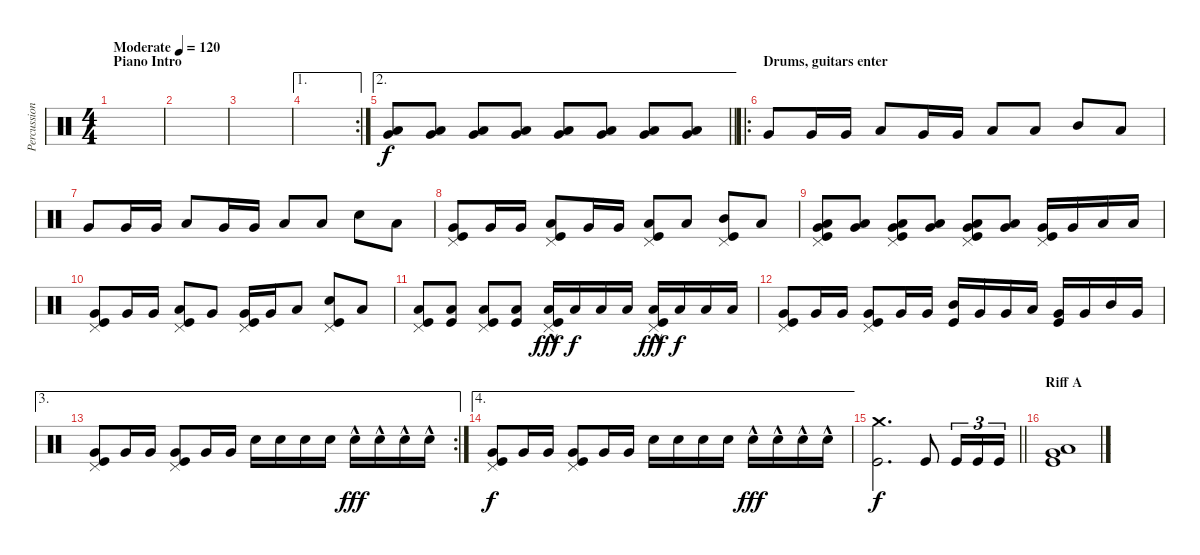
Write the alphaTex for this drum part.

\track ("Percussion (Aksu)" "Percussion") {instrument percussion}
\staff {score}
\articulation defaults
\ts (4 4)
\section ("" "Piano Intro")
\tempo (120 "Moderate")
\clef neutral
\ks c
|
|
|
\ae 1
\rc 2
|
\ae 2
\barLineRight lightlight
("Very Low Tom (hit)" "Low Floor Tom (hit)").8{volume 4} ("Very Low Tom (hit)" "Low Floor Tom (hit)").8{volume 13} ("Very Low Tom (hit)" "Low Floor Tom (hit)").8 ("Very Low Tom (hit)" "Low Floor Tom (hit)").8 ("Very Low Tom (hit)" "Low Floor Tom (hit)").8 ("Very Low Tom (hit)" "Low Floor Tom (hit)").8 ("Very Low Tom (hit)" "Low Floor Tom (hit)").8 ("Very Low Tom (hit)" "Low Floor Tom (hit)").8 |
\ro
\section ("" "Drums, guitars enter")
"Very Low Tom (hit)".8{volume 13} "Very Low Tom (hit)".16 "Very Low Tom (hit)".16 "Low Tom (hit)".8 "Very Low Tom (hit)".16 "Very Low Tom (hit)".16 "Low Floor Tom (hit)".8 "Low Floor Tom (hit)".8 "Mid Tom (hit)".8 "Low Tom (hit)".8 |
"Very Low Tom (hit)".8 "Very Low Tom (hit)".16 "Very Low Tom (hit)".16 "Low Tom (hit)".8 "Very Low Tom (hit)".16 "Very Low Tom (hit)".16 "Low Floor Tom (hit)".8 "Low Floor Tom (hit)".8 "Snare (hit) 2".8 "Low Tom (hit)".8 |
("Pedal Hi-Hat (hit)" "Very Low Tom (hit)" "Kick (hit)").8 "Very Low Tom (hit)".16 "Very Low Tom (hit)".16 ("Pedal Hi-Hat (hit)" "Low Tom (hit)" "Kick (hit)").8 "Very Low Tom (hit)".16 "Very Low Tom (hit)".16 ("Pedal Hi-Hat (hit)" "Low Floor Tom (hit)" "Kick (hit)").8 "Low Floor Tom (hit)".8 ("Pedal Hi-Hat (hit)" "Mid Tom (hit)" "Kick (hit)").8 "Low Tom (hit)".8 |
("Pedal Hi-Hat (hit)" "Low Tom (hit)" "Very Low Tom (hit)" "Kick (hit)").8{volume 6} ("Low Tom (hit)" "Very Low Tom (hit)").8{volume 16} ("Pedal Hi-Hat (hit)" "Low Tom (hit)" "Very Low Tom (hit)" "Kick (hit)").8 ("Low Tom (hit)" "Very Low Tom (hit)").8 ("Pedal Hi-Hat (hit)" "Low Tom (hit)" "Very Low Tom (hit)" "Kick (hit)").8 ("Low Tom (hit)" "Very Low Tom (hit)").8 ("Pedal Hi-Hat (hit)" "Very Low Tom (hit)" "Kick (hit)").16 "Very Low Tom (hit)".16 "Low Floor Tom (hit)".16 "Low Floor Tom (hit)".16 |
("Pedal Hi-Hat (hit)" "Very Low Tom (hit)" "Kick (hit)").8{volume 13} "Very Low Tom (hit)".16 "Very Low Tom (hit)".16 ("Pedal Hi-Hat (hit)" "Low Tom (hit)" "Kick (hit)").8 "Very Low Tom (hit)".8 ("Pedal Hi-Hat (hit)" "Very Low Tom (hit)" "Kick (hit)").16 "Very Low Tom (hit)".16 "Low Floor Tom (hit)".8 ("Pedal Hi-Hat (hit)" "Snare (hit) 2" "Kick (hit)").8 "Low Tom (hit)".8 |
("Pedal Hi-Hat (hit)" "Low Floor Tom (hit)" "Kick (hit)").8 ("Low Floor Tom (hit)" "Kick (hit)").8 ("Pedal Hi-Hat (hit)" "Low Floor Tom (hit)" "Kick (hit)").8 ("Low Floor Tom (hit)" "Kick (hit)").8 ("Pedal Hi-Hat (hit)" "Low Tom (hit)"{hac} "Kick (hit)").16{dy fff} "Low Tom (hit)".16{dy f} "Low Tom (hit)".16 "Low Tom (hit)".16 ("Pedal Hi-Hat (hit)" "Low Tom (hit)"{hac} "Kick (hit)").16{dy fff} "Low Tom (hit)".16{dy f} "Low Tom (hit)".16 "Low Tom (hit)".16 |
("Pedal Hi-Hat (hit)" "Very Low Tom (hit)" "Kick (hit)").8 "Very Low Tom (hit)".16 "Very Low Tom (hit)".16 ("Pedal Hi-Hat (hit)" "Very Low Tom (hit)" "Kick (hit)").8 "Very Low Tom (hit)".16 "Very Low Tom (hit)".16 ("Mid Tom (hit)" "Kick (hit)").16 "Very Low Tom (hit)".16 "Very Low Tom (hit)".16 "Low Tom (hit)".16 ("Very Low Tom (hit)" "Kick (hit)").16 "Very Low Tom (hit)".16 "Mid Tom (hit)".16 "Very Low Tom (hit)".16 |
\ae 3
\rc 2
("Pedal Hi-Hat (hit)" "Very Low Tom (hit)" "Kick (hit)").8 "Very Low Tom (hit)".16 "Very Low Tom (hit)".16 ("Pedal Hi-Hat (hit)" "Very Low Tom (hit)" "Kick (hit)").8 "Very Low Tom (hit)".16 "Very Low Tom (hit)".16 "Snare (hit) 2".16{volume 6} "Snare (hit) 2".16{volume 13} "Snare (hit) 2".16 "Snare (hit) 2".16 "Snare (hit) 2"{hac}.16{dy fff} "Snare (hit) 2"{hac}.16 "Snare (hit) 2"{hac}.16 "Snare (hit) 2"{hac}.16 |
\ae 4
("Pedal Hi-Hat (hit)" "Very Low Tom (hit)" "Kick (hit)").8{dy f volume 13} "Very Low Tom (hit)".16 "Very Low Tom (hit)".16 ("Pedal Hi-Hat (hit)" "Very Low Tom (hit)" "Kick (hit)").8 "Very Low Tom (hit)".16 "Very Low Tom (hit)".16 "Snare (hit) 2".16{volume 6} "Snare (hit) 2".16{volume 13} "Snare (hit) 2".16 "Snare (hit) 2".16 "Snare (hit) 2"{hac}.16{dy fff} "Snare (hit) 2"{hac}.16 "Snare (hit) 2"{hac}.16 "Snare (hit) 2"{hac}.16 |
\barLineRight lightlight
("Crash medium (hit)" "Kick (hit)").2{d dy f} "Kick (hit)".8 "Kick (hit)".16{tu (3 2)} "Kick (hit)".16{tu (3 2)} "Kick (hit)".16{tu (3 2)} |
\section ("" "Riff A")
("Very Low Tom (hit)" "Low Floor Tom (hit)" "Kick (hit)").1
